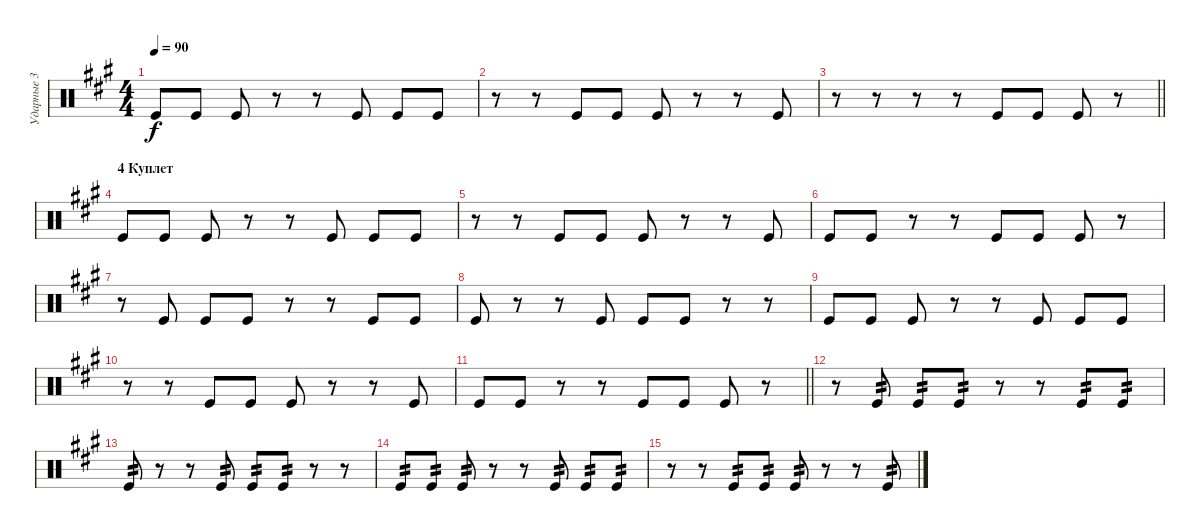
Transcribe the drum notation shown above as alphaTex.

\track ("Ударные 3" "Ударные 3") {instrument percussion}
\staff {score}
\articulation defaults
\ts (4 4)
\tempo 90
\clef neutral
\ks f#minor "Kick (hit)".8{dy f} "Kick (hit)".8 "Kick (hit)".8
r.8 r.8 "Kick (hit)".8 "Kick (hit)".8 "Kick (hit)".8 |
r.8 r.8 "Kick (hit)".8 "Kick (hit)".8 "Kick (hit)".8 r.8 r.8 "Kick (hit)".8 |
\barLineRight lightlight
r.8 r.8 r.8 r.8 "Kick (hit)".8 "Kick (hit)".8 "Kick (hit)".8 r.8 |
\section ("" "4 Куплет")
"Kick (hit)".8 "Kick (hit)".8 "Kick (hit)".8 r.8 r.8 "Kick (hit)".8 "Kick (hit)".8 "Kick (hit)".8 |
r.8 r.8 "Kick (hit)".8 "Kick (hit)".8 "Kick (hit)".8 r.8 r.8 "Kick (hit)".8 |
"Kick (hit)".8 "Kick (hit)".8 r.8 r.8 "Kick (hit)".8 "Kick (hit)".8 "Kick (hit)".8 r.8 |
r.8 "Kick (hit)".8 "Kick (hit)".8 "Kick (hit)".8 r.8 r.8 "Kick (hit)".8 "Kick (hit)".8 |
"Kick (hit)".8 r.8 r.8 "Kick (hit)".8 "Kick (hit)".8 "Kick (hit)".8 r.8 r.8 |
"Kick (hit)".8 "Kick (hit)".8 "Kick (hit)".8 r.8 r.8 "Kick (hit)".8 "Kick (hit)".8 "Kick (hit)".8 |
r.8 r.8 "Kick (hit)".8 "Kick (hit)".8 "Kick (hit)".8 r.8 r.8 "Kick (hit)".8 |
\barLineRight lightlight "Kick (hit)".8 "Kick (hit)".8
r.8 r.8 "Kick (hit)".8 "Kick (hit)".8 "Kick (hit)".8 r.8 |
r.8 "Kick (hit)".8{tp 2} "Kick (hit)".8{tp 2} "Kick (hit)".8{tp 2} r.8 r.8 "Kick (hit)".8{tp 2} "Kick (hit)".8{tp 2} |
"Kick (hit)".8{tp 2} r.8 r.8 "Kick (hit)".8{tp 2} "Kick (hit)".8{tp 2} "Kick (hit)".8{tp 2} r.8 r.8 |
"Kick (hit)".8{tp 2} "Kick (hit)".8{tp 2} "Kick (hit)".8{tp 2} r.8 r.8 "Kick (hit)".8{tp 2} "Kick (hit)".8{tp 2} "Kick (hit)".8{tp 2} |
r.8 r.8 "Kick (hit)".8{tp 2} "Kick (hit)".8{tp 2} "Kick (hit)".8{tp 2} r.8 r.8 "Kick (hit)".8{tp 2}
